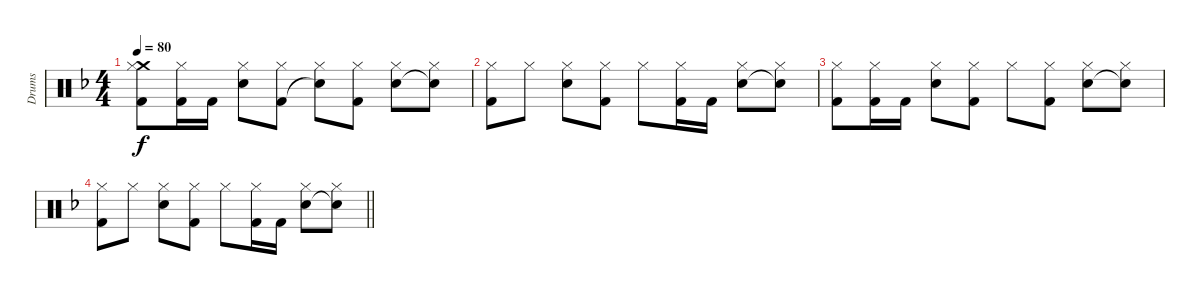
\track ("Drums" "Drums") {instrument percussion}
\staff {score}
\articulation defaults
\ts (4 4)
\tempo 80
\clef neutral
\ks f
("Crash medium (hit)" "Hi-Hat (closed)" "Kick (hit) 2").8{dy f} ("Hi-Hat (closed)" "Kick (hit) 2").16 "Kick (hit) 2".16 ("Hi-Hat (closed)" "Snare (hit) 2").8 ("Hi-Hat (closed)" "Kick (hit) 2").8 ("Hi-Hat (closed)" "Snare (hit) 2"{t}).8 ("Hi-Hat (closed)" "Kick (hit) 2").8 ("Hi-Hat (closed)" "Snare (hit) 2").8 ("Hi-Hat (closed)" "Snare (hit) 2"{t}).8 |
("Hi-Hat (closed)" "Kick (hit) 2").8 "Hi-Hat (closed)".8 ("Hi-Hat (closed)" "Snare (hit) 2").8 ("Hi-Hat (closed)" "Kick (hit) 2").8 "Hi-Hat (closed)".8 ("Hi-Hat (closed)" "Kick (hit) 2").16 "Kick (hit) 2".16 ("Hi-Hat (closed)" "Snare (hit) 2").8 ("Hi-Hat (closed)" "Snare (hit)"{t}).8 |
("Hi-Hat (closed)" "Kick (hit) 2").8 ("Hi-Hat (closed)" "Kick (hit) 2").16 "Kick (hit) 2".16 ("Hi-Hat (closed)" "Snare (hit) 2").8 ("Hi-Hat (closed)" "Kick (hit) 2").8 "Hi-Hat (closed)".8 ("Hi-Hat (closed)" "Kick (hit) 2").8 ("Hi-Hat (closed)" "Snare (hit) 2").8 ("Hi-Hat (closed)" "Snare (hit) 2"{t}).8 |
\barLineRight lightlight
("Hi-Hat (closed)" "Kick (hit) 2").8 "Hi-Hat (closed)".8 ("Hi-Hat (closed)" "Snare (hit) 2").8 ("Hi-Hat (closed)" "Kick (hit) 2").8 "Hi-Hat (closed)".8 ("Hi-Hat (closed)" "Kick (hit) 2").16 "Kick (hit) 2".16 ("Hi-Hat (closed)" "Snare (hit) 2").8 ("Hi-Hat (closed)" "Snare (hit)"{t}).8
